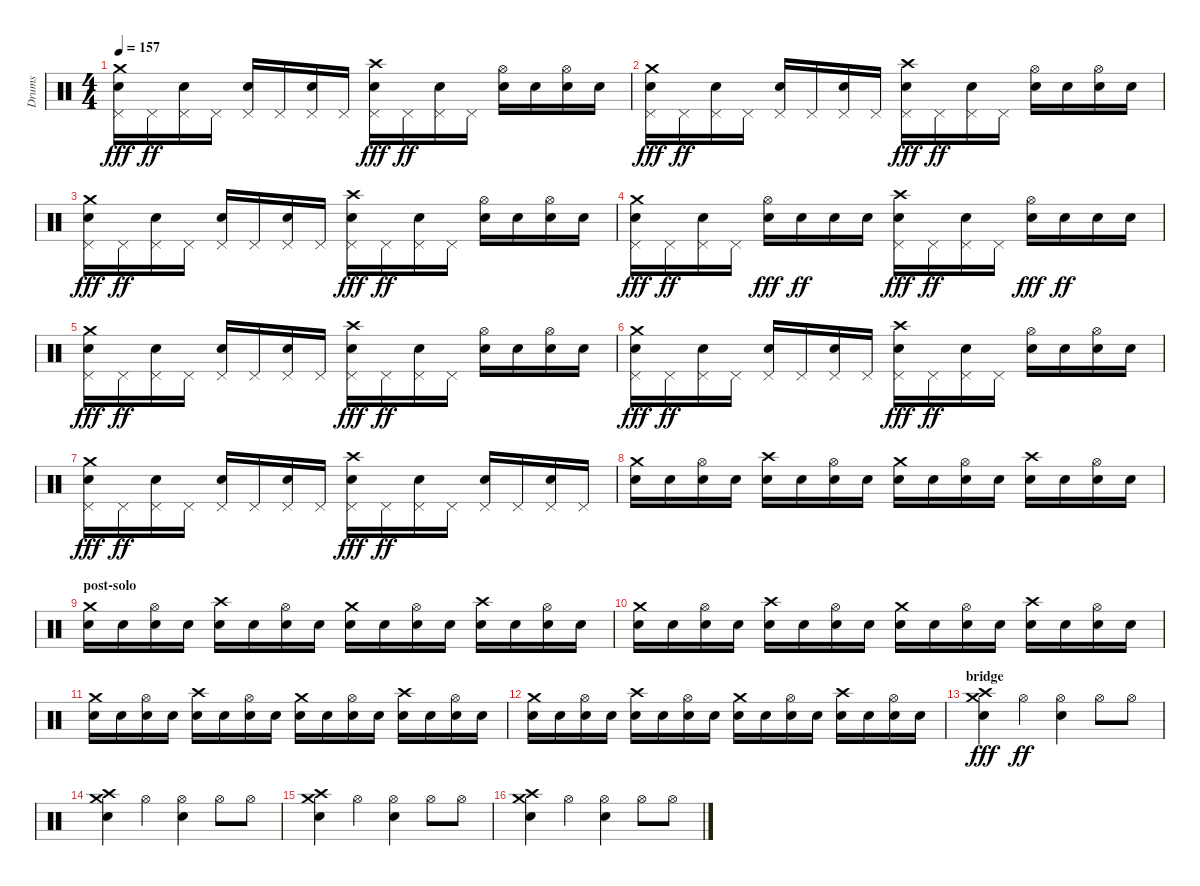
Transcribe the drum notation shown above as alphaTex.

\track ("Drums" "Drums") {instrument percussion}
\staff {score}
\articulation defaults
\ts (4 4)
\tempo 157
\clef neutral
\ks c
("Electric Snare (hit)" "Pedal Hi-Hat (hit)" "Crash medium (hit)").16{dy fff} "Pedal Hi-Hat (hit)".16{dy ff} ("Electric Snare (hit)" "Pedal Hi-Hat (hit)").16 "Pedal Hi-Hat (hit)".16 ("Snare (hit) 2" "Pedal Hi-Hat (hit)").16 "Pedal Hi-Hat (hit)".16 ("Electric Snare (hit)" "Pedal Hi-Hat (hit)").16 "Pedal Hi-Hat (hit)".16 ("Snare (hit) 2" "Pedal Hi-Hat (hit)" "Crash high (hit)").16{dy fff} "Pedal Hi-Hat (hit)".16{dy ff} ("Electric Snare (hit)" "Pedal Hi-Hat (hit)").16 "Pedal Hi-Hat (hit)".16 ("Hi-Hat (open)" "Electric Snare (hit)").16 "Electric Snare (hit)".16 ("Hi-Hat (open)" "Electric Snare (hit)").16 "Electric Snare (hit)".16 |
("Electric Snare (hit)" "Pedal Hi-Hat (hit)" "Crash medium (hit)").16{dy fff} "Pedal Hi-Hat (hit)".16{dy ff} ("Electric Snare (hit)" "Pedal Hi-Hat (hit)").16 "Pedal Hi-Hat (hit)".16 ("Snare (hit) 2" "Pedal Hi-Hat (hit)").16 "Pedal Hi-Hat (hit)".16 ("Electric Snare (hit)" "Pedal Hi-Hat (hit)").16 "Pedal Hi-Hat (hit)".16 ("Snare (hit) 2" "Pedal Hi-Hat (hit)" "Crash high (hit)").16{dy fff} "Pedal Hi-Hat (hit)".16{dy ff} ("Electric Snare (hit)" "Pedal Hi-Hat (hit)").16 "Pedal Hi-Hat (hit)".16 ("Hi-Hat (open)" "Electric Snare (hit)").16 "Electric Snare (hit)".16 ("Hi-Hat (open)" "Electric Snare (hit)").16 "Electric Snare (hit)".16 |
("Electric Snare (hit)" "Pedal Hi-Hat (hit)" "Crash medium (hit)").16{dy fff} "Pedal Hi-Hat (hit)".16{dy ff} ("Electric Snare (hit)" "Pedal Hi-Hat (hit)").16 "Pedal Hi-Hat (hit)".16 ("Snare (hit) 2" "Pedal Hi-Hat (hit)").16 "Pedal Hi-Hat (hit)".16 ("Electric Snare (hit)" "Pedal Hi-Hat (hit)").16 "Pedal Hi-Hat (hit)".16 ("Snare (hit) 2" "Pedal Hi-Hat (hit)" "Crash high (hit)").16{dy fff} "Pedal Hi-Hat (hit)".16{dy ff} ("Electric Snare (hit)" "Pedal Hi-Hat (hit)").16 "Pedal Hi-Hat (hit)".16 ("Hi-Hat (open)" "Electric Snare (hit)").16 "Electric Snare (hit)".16 ("Hi-Hat (open)" "Electric Snare (hit)").16 "Electric Snare (hit)".16 |
("Electric Snare (hit)" "Pedal Hi-Hat (hit)" "Crash medium (hit)").16{dy fff} "Pedal Hi-Hat (hit)".16{dy ff} ("Electric Snare (hit)" "Pedal Hi-Hat (hit)").16 "Pedal Hi-Hat (hit)".16 ("Electric Snare (hit)" "Hi-Hat (open)").16{dy fff} "Electric Snare (hit)".16{dy ff} "Electric Snare (hit)".16 "Electric Snare (hit)".16 ("Snare (hit) 2" "Pedal Hi-Hat (hit)" "Crash high (hit)").16{dy fff} "Pedal Hi-Hat (hit)".16{dy ff} ("Electric Snare (hit)" "Pedal Hi-Hat (hit)").16 "Pedal Hi-Hat (hit)".16 ("Electric Snare (hit)" "Hi-Hat (open)").16{dy fff} "Electric Snare (hit)".16{dy ff} "Electric Snare (hit)".16 "Electric Snare (hit)".16 |
("Electric Snare (hit)" "Pedal Hi-Hat (hit)" "Crash medium (hit)").16{dy fff} "Pedal Hi-Hat (hit)".16{dy ff} ("Electric Snare (hit)" "Pedal Hi-Hat (hit)").16 "Pedal Hi-Hat (hit)".16 ("Snare (hit) 2" "Pedal Hi-Hat (hit)").16 "Pedal Hi-Hat (hit)".16 ("Electric Snare (hit)" "Pedal Hi-Hat (hit)").16 "Pedal Hi-Hat (hit)".16 ("Snare (hit) 2" "Pedal Hi-Hat (hit)" "Crash high (hit)").16{dy fff} "Pedal Hi-Hat (hit)".16{dy ff} ("Electric Snare (hit)" "Pedal Hi-Hat (hit)").16 "Pedal Hi-Hat (hit)".16 ("Hi-Hat (open)" "Electric Snare (hit)").16 "Electric Snare (hit)".16 ("Hi-Hat (open)" "Electric Snare (hit)").16 "Electric Snare (hit)".16 |
("Electric Snare (hit)" "Pedal Hi-Hat (hit)" "Crash medium (hit)").16{dy fff} "Pedal Hi-Hat (hit)".16{dy ff} ("Electric Snare (hit)" "Pedal Hi-Hat (hit)").16 "Pedal Hi-Hat (hit)".16 ("Snare (hit) 2" "Pedal Hi-Hat (hit)").16 "Pedal Hi-Hat (hit)".16 ("Electric Snare (hit)" "Pedal Hi-Hat (hit)").16 "Pedal Hi-Hat (hit)".16 ("Snare (hit) 2" "Pedal Hi-Hat (hit)" "Crash high (hit)").16{dy fff} "Pedal Hi-Hat (hit)".16{dy ff} ("Electric Snare (hit)" "Pedal Hi-Hat (hit)").16 "Pedal Hi-Hat (hit)".16 ("Hi-Hat (open)" "Electric Snare (hit)").16 "Electric Snare (hit)".16 ("Hi-Hat (open)" "Electric Snare (hit)").16 "Electric Snare (hit)".16 |
("Electric Snare (hit)" "Pedal Hi-Hat (hit)" "Crash medium (hit)").16{dy fff} "Pedal Hi-Hat (hit)".16{dy ff} ("Electric Snare (hit)" "Pedal Hi-Hat (hit)").16 "Pedal Hi-Hat (hit)".16 ("Snare (hit) 2" "Pedal Hi-Hat (hit)").16 "Pedal Hi-Hat (hit)".16 ("Electric Snare (hit)" "Pedal Hi-Hat (hit)").16 "Pedal Hi-Hat (hit)".16 ("Snare (hit) 2" "Pedal Hi-Hat (hit)" "Crash high (hit)").16{dy fff} "Pedal Hi-Hat (hit)".16{dy ff} ("Electric Snare (hit)" "Pedal Hi-Hat (hit)").16 "Pedal Hi-Hat (hit)".16 ("Snare (hit) 2" "Pedal Hi-Hat (hit)").16 "Pedal Hi-Hat (hit)".16 ("Electric Snare (hit)" "Pedal Hi-Hat (hit)").16 "Pedal Hi-Hat (hit)".16 |
("Electric Snare (hit)" "Crash medium (hit)").16 "Electric Snare (hit)".16 ("Electric Snare (hit)" "Hi-Hat (open)").16 "Electric Snare (hit)".16 ("Electric Snare (hit)" "Crash high (hit)").16 "Electric Snare (hit)".16 ("Electric Snare (hit)" "Hi-Hat (open)").16 "Electric Snare (hit)".16 ("Electric Snare (hit)" "Crash medium (hit)").16 "Electric Snare (hit)".16 ("Electric Snare (hit)" "Hi-Hat (open)").16 "Electric Snare (hit)".16 ("Electric Snare (hit)" "Crash high (hit)").16 "Electric Snare (hit)".16 ("Electric Snare (hit)" "Hi-Hat (open)").16 "Electric Snare (hit)".16 |
\section ("" "post-solo")
("Electric Snare (hit)" "Crash medium (hit)").16 "Electric Snare (hit)".16 ("Electric Snare (hit)" "Hi-Hat (open)").16 "Electric Snare (hit)".16 ("Electric Snare (hit)" "Crash high (hit)").16 "Electric Snare (hit)".16 ("Electric Snare (hit)" "Hi-Hat (open)").16 "Electric Snare (hit)".16 ("Electric Snare (hit)" "Crash medium (hit)").16 "Electric Snare (hit)".16 ("Electric Snare (hit)" "Hi-Hat (open)").16 "Electric Snare (hit)".16 ("Electric Snare (hit)" "Crash high (hit)").16 "Electric Snare (hit)".16 ("Electric Snare (hit)" "Hi-Hat (open)").16 "Electric Snare (hit)".16 |
("Electric Snare (hit)" "Crash medium (hit)").16 "Electric Snare (hit)".16 ("Electric Snare (hit)" "Hi-Hat (open)").16 "Electric Snare (hit)".16 ("Electric Snare (hit)" "Crash high (hit)").16 "Electric Snare (hit)".16 ("Electric Snare (hit)" "Hi-Hat (open)").16 "Electric Snare (hit)".16 ("Electric Snare (hit)" "Crash medium (hit)").16 "Electric Snare (hit)".16 ("Electric Snare (hit)" "Hi-Hat (open)").16 "Electric Snare (hit)".16 ("Electric Snare (hit)" "Crash high (hit)").16 "Electric Snare (hit)".16 ("Electric Snare (hit)" "Hi-Hat (open)").16 "Electric Snare (hit)".16 |
("Electric Snare (hit)" "Crash medium (hit)").16 "Electric Snare (hit)".16 ("Electric Snare (hit)" "Hi-Hat (open)").16 "Electric Snare (hit)".16 ("Electric Snare (hit)" "Crash high (hit)").16 "Electric Snare (hit)".16 ("Electric Snare (hit)" "Hi-Hat (open)").16 "Electric Snare (hit)".16 ("Electric Snare (hit)" "Crash medium (hit)").16 "Electric Snare (hit)".16 ("Electric Snare (hit)" "Hi-Hat (open)").16 "Electric Snare (hit)".16 ("Electric Snare (hit)" "Crash high (hit)").16 "Electric Snare (hit)".16 ("Electric Snare (hit)" "Hi-Hat (open)").16 "Electric Snare (hit)".16 |
("Electric Snare (hit)" "Crash medium (hit)").16 "Electric Snare (hit)".16 ("Electric Snare (hit)" "Hi-Hat (open)").16 "Electric Snare (hit)".16 ("Electric Snare (hit)" "Crash high (hit)").16 "Electric Snare (hit)".16 ("Electric Snare (hit)" "Hi-Hat (open)").16 "Electric Snare (hit)".16 ("Electric Snare (hit)" "Crash medium (hit)").16 "Electric Snare (hit)".16 ("Electric Snare (hit)" "Hi-Hat (open)").16 "Electric Snare (hit)".16 ("Electric Snare (hit)" "Crash high (hit)").16 "Electric Snare (hit)".16 ("Electric Snare (hit)" "Hi-Hat (open)").16 "Electric Snare (hit)".16 |
\section ("" "bridge")
("Crash high (hit)" "Crash medium (hit)" "Electric Snare (hit)").4{dy fff} "Hi-Hat (open)".4{dy ff} ("Electric Snare (hit)" "Hi-Hat (open)").4 "Hi-Hat (open)".8 "Hi-Hat (open)".8 |
("Crash high (hit)" "Crash medium (hit)" "Electric Snare (hit)").4 "Hi-Hat (open)".4 ("Electric Snare (hit)" "Hi-Hat (open)").4 "Hi-Hat (open)".8 "Hi-Hat (open)".8 |
("Crash high (hit)" "Crash medium (hit)" "Electric Snare (hit)").4 "Hi-Hat (open)".4 ("Electric Snare (hit)" "Hi-Hat (open)").4 "Hi-Hat (open)".8 "Hi-Hat (open)".8 |
("Crash high (hit)" "Crash medium (hit)" "Electric Snare (hit)").4 "Hi-Hat (open)".4 ("Electric Snare (hit)" "Hi-Hat (open)").4 "Hi-Hat (open)".8 "Hi-Hat (open)".8
